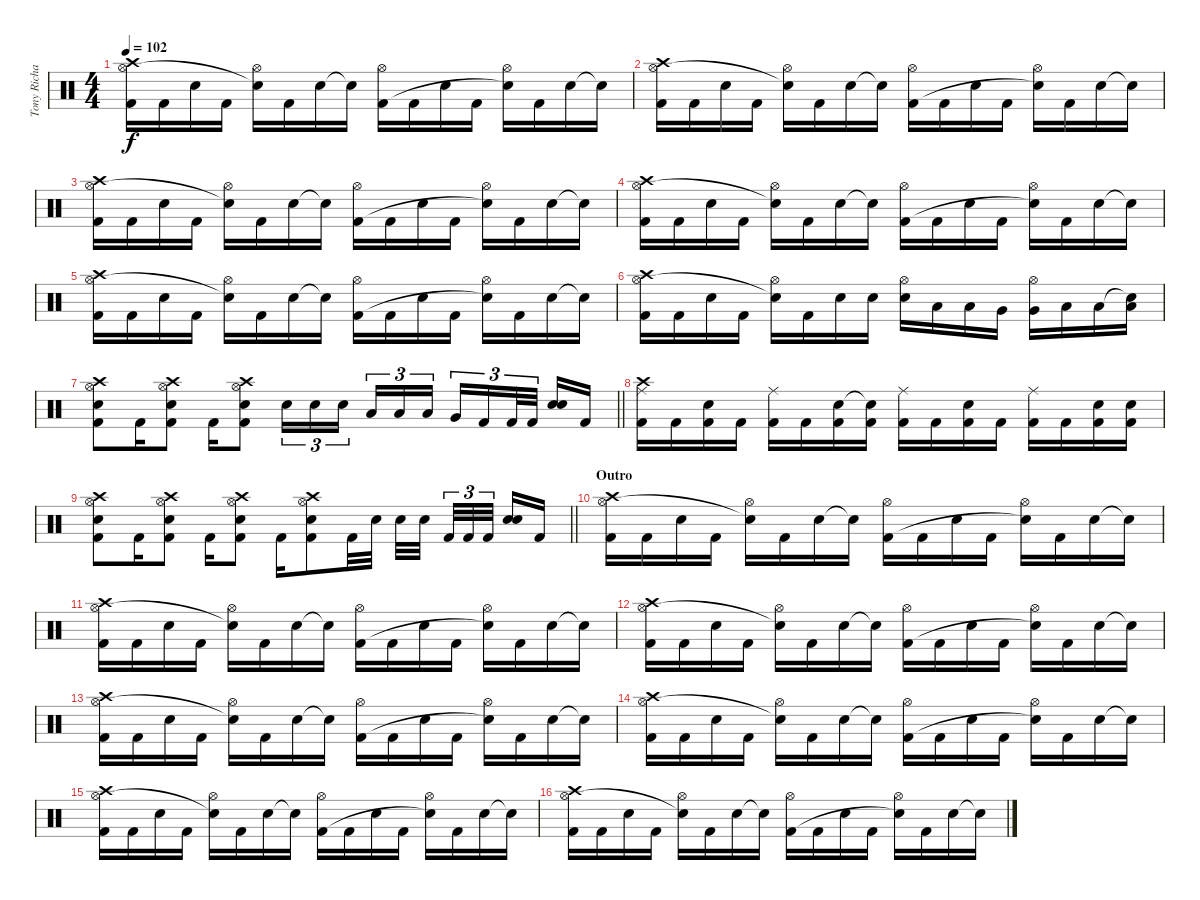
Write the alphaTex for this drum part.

\track ("Tony Richards (drums)" "Tony Richa") {instrument percussion}
\staff {score}
\articulation defaults
\ts (4 4)
\tempo 102
\clef neutral
\ks c
("Crash high (hit)" "Hi-Hat (open)" "Kick (hit) 2").16{dy f} "Kick (hit) 2".16 "Snare (hit) 2".16 "Kick (hit) 2".16 ("Hi-Hat (open)" "Snare (hit)"{t}).16 "Kick (hit) 2".16 "Snare (hit) 2".16 "Snare (hit)"{t}.16 ("Hi-Hat (open)" "Kick (hit) 2").16 "Kick (hit) 2".16 "Snare (hit) 2".16 "Kick (hit) 2".16 ("Hi-Hat (open)" "Snare (hit)"{t}).16 "Kick (hit) 2".16 "Snare (hit) 2".16 "Snare (hit)"{t}.16 |
("Crash high (hit)" "Hi-Hat (open)" "Kick (hit) 2").16 "Kick (hit) 2".16 "Snare (hit) 2".16 "Kick (hit) 2".16 ("Hi-Hat (open)" "Snare (hit)"{t}).16 "Kick (hit) 2".16 "Snare (hit) 2".16 "Snare (hit)"{t}.16 ("Hi-Hat (open)" "Kick (hit) 2").16 "Kick (hit) 2".16 "Snare (hit) 2".16 "Kick (hit) 2".16 ("Hi-Hat (open)" "Snare (hit)"{t}).16 "Kick (hit) 2".16 "Snare (hit) 2".16 "Snare (hit)"{t}.16 |
("Crash high (hit)" "Hi-Hat (open)" "Kick (hit) 2").16 "Kick (hit) 2".16 "Snare (hit) 2".16 "Kick (hit) 2".16 ("Hi-Hat (open)" "Snare (hit)"{t}).16 "Kick (hit) 2".16 "Snare (hit) 2".16 "Snare (hit)"{t}.16 ("Hi-Hat (open)" "Kick (hit) 2").16 "Kick (hit) 2".16 "Snare (hit) 2".16 "Kick (hit) 2".16 ("Hi-Hat (open)" "Snare (hit)"{t}).16 "Kick (hit) 2".16 "Snare (hit) 2".16 "Snare (hit)"{t}.16 |
("Crash high (hit)" "Hi-Hat (open)" "Kick (hit) 2").16 "Kick (hit) 2".16 "Snare (hit) 2".16 "Kick (hit) 2".16 ("Hi-Hat (open)" "Snare (hit)"{t}).16 "Kick (hit) 2".16 "Snare (hit) 2".16 "Snare (hit)"{t}.16 ("Hi-Hat (open)" "Kick (hit) 2").16 "Kick (hit) 2".16 "Snare (hit) 2".16 "Kick (hit) 2".16 ("Hi-Hat (open)" "Snare (hit)"{t}).16 "Kick (hit) 2".16 "Snare (hit) 2".16 "Snare (hit)"{t}.16 |
("Crash high (hit)" "Hi-Hat (open)" "Kick (hit) 2").16 "Kick (hit) 2".16 "Snare (hit) 2".16 "Kick (hit) 2".16 ("Hi-Hat (open)" "Snare (hit)"{t}).16 "Kick (hit) 2".16 "Snare (hit) 2".16 "Snare (hit)"{t}.16 ("Hi-Hat (open)" "Kick (hit) 2").16 "Kick (hit) 2".16 "Snare (hit) 2".16 "Kick (hit) 2".16 ("Hi-Hat (open)" "Snare (hit)"{t}).16 "Kick (hit) 2".16 "Snare (hit) 2".16 "Snare (hit)"{t}.16 |
("Crash high (hit)" "Hi-Hat (open)" "Kick (hit) 2").16 "Kick (hit) 2".16 "Snare (hit) 2".16 "Kick (hit) 2".16 ("Hi-Hat (open)" "Snare (hit)"{t}).16 "Kick (hit) 2".16 "Snare (hit) 2".16 "Snare (hit) 2".16 ("Hi-Hat (open)" "Snare (hit) 2").16 "Low Tom (hit)".16 "Low Tom (hit)".16 "Very Low Tom (hit)".16 ("Hi-Hat (open)" "Very Low Tom (hit)").16 "Low Floor Tom (hit)".16 "Low Floor Tom (hit)".16 ("Snare (hit)"{t} "Low Floor Tom (hit)").16 |
\barLineRight lightlight
("Crash high (hit)" "Hi-Hat (open)" "Snare (hit) 2" "Kick (hit) 2").8 "Kick (hit) 2".16 ("Crash high (hit)" "Hi-Hat (open)" "Snare (hit) 2" "Kick (hit) 2").8 "Kick (hit) 2".16 ("Crash high (hit)" "Hi-Hat (open)" "Snare (hit) 2" "Kick (hit) 2").8 "Snare (hit) 2".16{tu (3 2)} "Snare (hit) 2".16{tu (3 2)} "Snare (hit) 2".16{tu (3 2) beam splitsecondary} "Low Tom (hit)".16{tu (3 2)} "Low Tom (hit)".16{tu (3 2)} "Low Tom (hit)".16{tu (3 2)} "Very Low Tom (hit)".16{tu (3 2)} "Kick (hit) 2".16{tu (3 2)} "Kick (hit) 2".32{tu (3 2)} "Kick (hit) 2".32{tu (3 2) beam splitsecondary} ("Snare (hit) 2" "Snare (hit) 2").16 "Kick (hit) 2".16 |
("Crash high (hit)" "Ride (middle)" "Kick (hit) 2").16 "Kick (hit) 2".16 ("Snare (hit) 2" "Kick (hit) 2").16 "Kick (hit) 2".16 ("Ride (middle)" "Kick (hit) 2").16 "Kick (hit) 2".16 ("Snare (hit) 2" "Kick (hit) 2").16 ("Snare (hit)"{t} "Kick (hit) 2").16 ("Ride (middle)" "Kick (hit) 2").16 "Kick (hit) 2".16 ("Snare (hit) 2" "Kick (hit) 2").16 "Kick (hit) 2".16 ("Ride (middle)" "Kick (hit) 2").16 "Kick (hit) 2".16 ("Snare (hit) 2" "Kick (hit) 2").16 ("Snare (hit) 2" "Kick (hit) 2").16 |
\barLineRight lightlight
("Crash high (hit)" "Hi-Hat (open)" "Snare (hit) 2" "Kick (hit) 2").8 "Kick (hit) 2".16 ("Crash high (hit)" "Hi-Hat (open)" "Snare (hit) 2" "Kick (hit) 2").8 "Kick (hit) 2".16 ("Crash high (hit)" "Hi-Hat (open)" "Snare (hit) 2" "Kick (hit) 2").8 "Kick (hit) 2".16 ("Crash high (hit)" "Hi-Hat (open)" "Snare (hit) 2" "Kick (hit) 2").8 "Kick (hit) 2".32 "Snare (hit) 2".32 "Snare (hit) 2".32 "Snare (hit) 2".32{beam splitsecondary} "Kick (hit) 2".32{tu (3 2)} "Kick (hit) 2".32{tu (3 2)} "Kick (hit) 2".32{tu (3 2) beam splitsecondary} ("Snare (hit) 2" "Snare (hit) 2").16 "Kick (hit) 2".16 |
\section ("" "Outro")
("Crash high (hit)" "Hi-Hat (open)" "Kick (hit) 2").16 "Kick (hit) 2".16 "Snare (hit) 2".16 "Kick (hit) 2".16 ("Hi-Hat (open)" "Snare (hit)"{t}).16 "Kick (hit) 2".16 "Snare (hit) 2".16 "Snare (hit)"{t}.16 ("Hi-Hat (open)" "Kick (hit) 2").16 "Kick (hit) 2".16 "Snare (hit) 2".16 "Kick (hit) 2".16 ("Hi-Hat (open)" "Snare (hit)"{t}).16 "Kick (hit) 2".16 "Snare (hit) 2".16 "Snare (hit)"{t}.16 |
("Crash high (hit)" "Hi-Hat (open)" "Kick (hit) 2").16 "Kick (hit) 2".16 "Snare (hit) 2".16 "Kick (hit) 2".16 ("Hi-Hat (open)" "Snare (hit)"{t}).16 "Kick (hit) 2".16 "Snare (hit) 2".16 "Snare (hit)"{t}.16 ("Hi-Hat (open)" "Kick (hit) 2").16 "Kick (hit) 2".16 "Snare (hit) 2".16 "Kick (hit) 2".16 ("Hi-Hat (open)" "Snare (hit)"{t}).16 "Kick (hit) 2".16 "Snare (hit) 2".16 "Snare (hit)"{t}.16 |
("Crash high (hit)" "Hi-Hat (open)" "Kick (hit) 2").16 "Kick (hit) 2".16 "Snare (hit) 2".16 "Kick (hit) 2".16 ("Hi-Hat (open)" "Snare (hit)"{t}).16 "Kick (hit) 2".16 "Snare (hit) 2".16 "Snare (hit)"{t}.16 ("Hi-Hat (open)" "Kick (hit) 2").16 "Kick (hit) 2".16 "Snare (hit) 2".16 "Kick (hit) 2".16 ("Hi-Hat (open)" "Snare (hit)"{t}).16 "Kick (hit) 2".16 "Snare (hit) 2".16 "Snare (hit)"{t}.16 |
("Crash high (hit)" "Hi-Hat (open)" "Kick (hit) 2").16 "Kick (hit) 2".16 "Snare (hit) 2".16 "Kick (hit) 2".16 ("Hi-Hat (open)" "Snare (hit)"{t}).16 "Kick (hit) 2".16 "Snare (hit) 2".16 "Snare (hit)"{t}.16 ("Hi-Hat (open)" "Kick (hit) 2").16 "Kick (hit) 2".16 "Snare (hit) 2".16 "Kick (hit) 2".16 ("Hi-Hat (open)" "Snare (hit)"{t}).16 "Kick (hit) 2".16 "Snare (hit) 2".16 "Snare (hit)"{t}.16 |
("Crash high (hit)" "Hi-Hat (open)" "Kick (hit) 2").16 "Kick (hit) 2".16 "Snare (hit) 2".16 "Kick (hit) 2".16 ("Hi-Hat (open)" "Snare (hit)"{t}).16 "Kick (hit) 2".16 "Snare (hit) 2".16 "Snare (hit)"{t}.16 ("Hi-Hat (open)" "Kick (hit) 2").16 "Kick (hit) 2".16 "Snare (hit) 2".16 "Kick (hit) 2".16 ("Hi-Hat (open)" "Snare (hit)"{t}).16 "Kick (hit) 2".16 "Snare (hit) 2".16 "Snare (hit)"{t}.16 |
("Crash high (hit)" "Hi-Hat (open)" "Kick (hit) 2").16 "Kick (hit) 2".16 "Snare (hit) 2".16 "Kick (hit) 2".16 ("Hi-Hat (open)" "Snare (hit)"{t}).16 "Kick (hit) 2".16 "Snare (hit) 2".16 "Snare (hit)"{t}.16 ("Hi-Hat (open)" "Kick (hit) 2").16 "Kick (hit) 2".16 "Snare (hit) 2".16 "Kick (hit) 2".16 ("Hi-Hat (open)" "Snare (hit)"{t}).16 "Kick (hit) 2".16 "Snare (hit) 2".16 "Snare (hit)"{t}.16 |
("Crash high (hit)" "Hi-Hat (open)" "Kick (hit) 2").16 "Kick (hit) 2".16 "Snare (hit) 2".16 "Kick (hit) 2".16 ("Hi-Hat (open)" "Snare (hit)"{t}).16 "Kick (hit) 2".16 "Snare (hit) 2".16 "Snare (hit)"{t}.16 ("Hi-Hat (open)" "Kick (hit) 2").16 "Kick (hit) 2".16 "Snare (hit) 2".16 "Kick (hit) 2".16 ("Hi-Hat (open)" "Snare (hit)"{t}).16 "Kick (hit) 2".16 "Snare (hit) 2".16 "Snare (hit)"{t}.16
